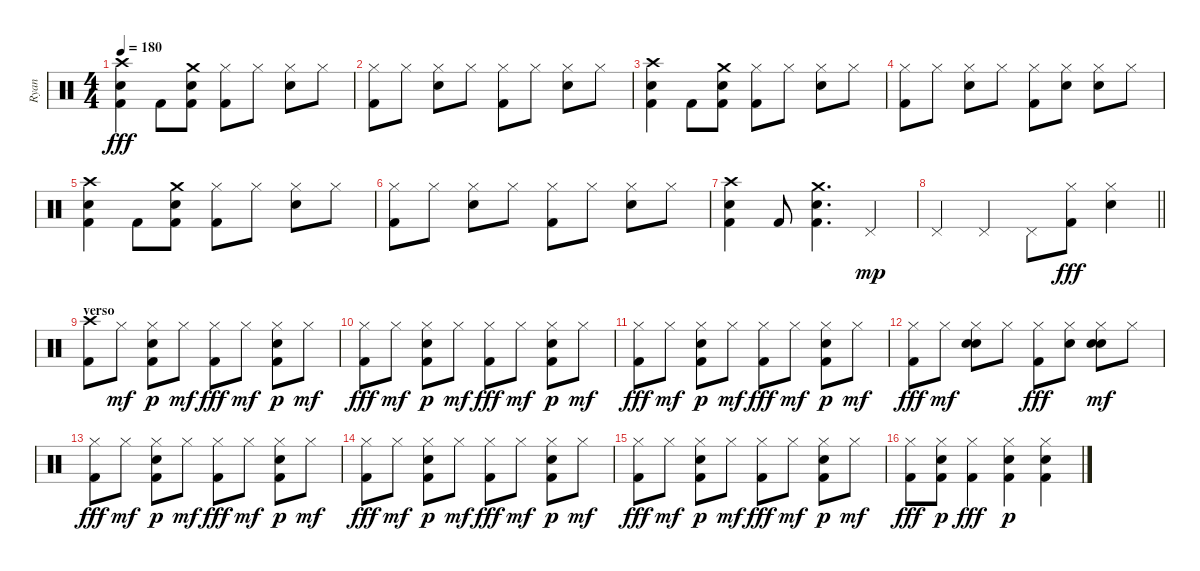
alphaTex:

\track ("Ryan" "Ryan") {instrument percussion}
\staff {score}
\articulation defaults
\ts (4 4)
\tempo 180
\clef neutral
\ks c
("Kick (hit) 2" "Snare (hit) 2" "Crash high (hit)").4{dy fff} "Kick (hit) 2".8 ("Kick (hit) 2" "Snare (hit) 2" "Crash medium (hit)").8 ("Kick (hit) 2" "Hi-Hat (closed)").8 "Hi-Hat (closed)".8 ("Snare (hit) 2" "Hi-Hat (closed)").8 "Hi-Hat (closed)".8 |
("Kick (hit) 2" "Hi-Hat (closed)").8 "Hi-Hat (closed)".8 ("Snare (hit) 2" "Hi-Hat (closed)").8 "Hi-Hat (closed)".8 ("Kick (hit) 2" "Hi-Hat (closed)").8 "Hi-Hat (closed)".8 ("Snare (hit) 2" "Hi-Hat (closed)").8 "Hi-Hat (closed)".8 |
("Kick (hit) 2" "Snare (hit) 2" "Crash high (hit)").4 "Kick (hit) 2".8 ("Kick (hit) 2" "Snare (hit) 2" "Crash medium (hit)").8 ("Kick (hit) 2" "Hi-Hat (closed)").8 "Hi-Hat (closed)".8 ("Snare (hit) 2" "Hi-Hat (closed)").8 "Hi-Hat (closed)".8 |
("Kick (hit) 2" "Hi-Hat (closed)").8 "Hi-Hat (closed)".8 ("Snare (hit) 2" "Hi-Hat (closed)").8 "Hi-Hat (closed)".8 ("Kick (hit) 2" "Hi-Hat (closed)").8 ("Snare (hit) 2" "Hi-Hat (closed)").8 ("Snare (hit) 2" "Hi-Hat (closed)").8 "Hi-Hat (closed)".8 |
("Kick (hit) 2" "Snare (hit) 2" "Crash high (hit)").4 "Kick (hit) 2".8 ("Kick (hit) 2" "Snare (hit) 2" "Crash medium (hit)").8 ("Kick (hit) 2" "Hi-Hat (closed)").8 "Hi-Hat (closed)".8 ("Snare (hit) 2" "Hi-Hat (closed)").8 "Hi-Hat (closed)".8 |
("Kick (hit) 2" "Hi-Hat (closed)").8 "Hi-Hat (closed)".8 ("Snare (hit) 2" "Hi-Hat (closed)").8 "Hi-Hat (closed)".8 ("Kick (hit) 2" "Hi-Hat (closed)").8 "Hi-Hat (closed)".8 ("Snare (hit) 2" "Hi-Hat (closed)").8 "Hi-Hat (closed)".8 |
("Kick (hit) 2" "Snare (hit) 2" "Crash high (hit)").4 "Kick (hit) 2".8 ("Kick (hit) 2" "Snare (hit) 2" "Crash medium (hit)").4{d} "Pedal Hi-Hat (hit)".4{dy mp} |
\barLineRight lightlight "Pedal Hi-Hat (hit)".4 "Pedal Hi-Hat (hit)".4 "Pedal Hi-Hat (hit)".8
("Kick (hit) 2" "Hi-Hat (closed)").8{dy fff} ("Snare (hit) 2" "Hi-Hat (closed)").4 |
\section ("" "verso")
("Kick (hit) 2" "Crash high (hit)").8 "Hi-Hat (closed)".8{dy mf} ("Snare (hit) 2" "Hi-Hat (closed)" "Kick (hit) 2").8{dy p} "Hi-Hat (closed)".8{dy mf} ("Kick (hit) 2" "Hi-Hat (closed)").8{dy fff} "Hi-Hat (closed)".8{dy mf} ("Snare (hit) 2" "Hi-Hat (closed)" "Kick (hit) 2").8{dy p} "Hi-Hat (closed)".8{dy mf} |
("Kick (hit) 2" "Hi-Hat (closed)").8{dy fff} "Hi-Hat (closed)".8{dy mf} ("Snare (hit) 2" "Hi-Hat (closed)" "Kick (hit) 2").8{dy p} "Hi-Hat (closed)".8{dy mf} ("Kick (hit) 2" "Hi-Hat (closed)").8{dy fff} "Hi-Hat (closed)".8{dy mf} ("Snare (hit) 2" "Hi-Hat (closed)" "Kick (hit) 2").8{dy p} "Hi-Hat (closed)".8{dy mf} |
("Kick (hit) 2" "Hi-Hat (closed)").8{dy fff} "Hi-Hat (closed)".8{dy mf} ("Snare (hit) 2" "Hi-Hat (closed)" "Kick (hit) 2").8{dy p} "Hi-Hat (closed)".8{dy mf} ("Kick (hit) 2" "Hi-Hat (closed)").8{dy fff} "Hi-Hat (closed)".8{dy mf} ("Snare (hit) 2" "Hi-Hat (closed)" "Kick (hit) 2").8{dy p} "Hi-Hat (closed)".8{dy mf} |
("Kick (hit) 2" "Hi-Hat (closed)").8{dy fff} "Hi-Hat (closed)".8{dy mf} ("Snare (hit) 2" "Hi-Hat (closed)" "Hand Clap (hit)").8 "Hi-Hat (closed)".8 ("Kick (hit) 2" "Hi-Hat (closed)").8{dy fff} ("Snare (hit) 2" "Hi-Hat (closed)").8 ("Snare (hit) 2" "Hi-Hat (closed)" "Hand Clap (hit)").8{dy mf} "Hi-Hat (closed)".8 |
("Kick (hit) 2" "Hi-Hat (closed)").8{dy fff} "Hi-Hat (closed)".8{dy mf} ("Snare (hit) 2" "Hi-Hat (closed)" "Kick (hit) 2").8{dy p} "Hi-Hat (closed)".8{dy mf} ("Kick (hit) 2" "Hi-Hat (closed)").8{dy fff} "Hi-Hat (closed)".8{dy mf} ("Snare (hit) 2" "Hi-Hat (closed)" "Kick (hit) 2").8{dy p} "Hi-Hat (closed)".8{dy mf} |
("Kick (hit) 2" "Hi-Hat (closed)").8{dy fff} "Hi-Hat (closed)".8{dy mf} ("Snare (hit) 2" "Hi-Hat (closed)" "Kick (hit) 2").8{dy p} "Hi-Hat (closed)".8{dy mf} ("Kick (hit) 2" "Hi-Hat (closed)").8{dy fff} "Hi-Hat (closed)".8{dy mf} ("Snare (hit) 2" "Hi-Hat (closed)" "Kick (hit) 2").8{dy p} "Hi-Hat (closed)".8{dy mf} |
("Kick (hit) 2" "Hi-Hat (closed)").8{dy fff} "Hi-Hat (closed)".8{dy mf} ("Snare (hit) 2" "Hi-Hat (closed)" "Kick (hit) 2").8{dy p} "Hi-Hat (closed)".8{dy mf} ("Kick (hit) 2" "Hi-Hat (closed)").8{dy fff} "Hi-Hat (closed)".8{dy mf} ("Snare (hit) 2" "Hi-Hat (closed)" "Kick (hit) 2").8{dy p} "Hi-Hat (closed)".8{dy mf} |
("Kick (hit) 2" "Hi-Hat (closed)").8{dy fff} ("Snare (hit) 2" "Hi-Hat (closed)" "Kick (hit) 2").8{dy p} ("Kick (hit) 2" "Hi-Hat (closed)").4{dy fff} ("Snare (hit) 2" "Hi-Hat (closed)" "Kick (hit) 2").4{dy p} ("Snare (hit) 2" "Hi-Hat (closed)" "Kick (hit) 2").4
